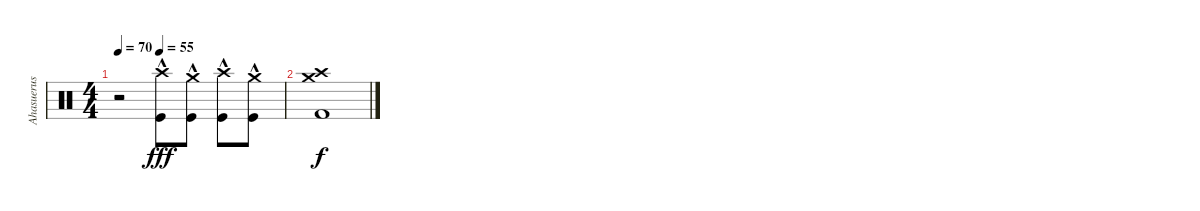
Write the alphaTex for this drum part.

\track ("Ahasuerus" "Ahasuerus") {instrument percussion}
\staff {score}
\articulation defaults
\ts (4 4)
\tempo 70
\tempo (55 0.25)
\clef neutral
\ks c
r.2{dy f} ("Crash high (hit)" "Kick (hit)"{hac}).8{dy fff} ("Crash medium (hit)" "Kick (hit)"{hac}).8 ("Crash high (hit)" "Kick (hit)"{hac}).8 ("Crash medium (hit)" "Kick (hit)"{hac}).8 |
("Crash medium (hit)" "Crash high (hit)" "Kick (hit) 2").1{dy f}
